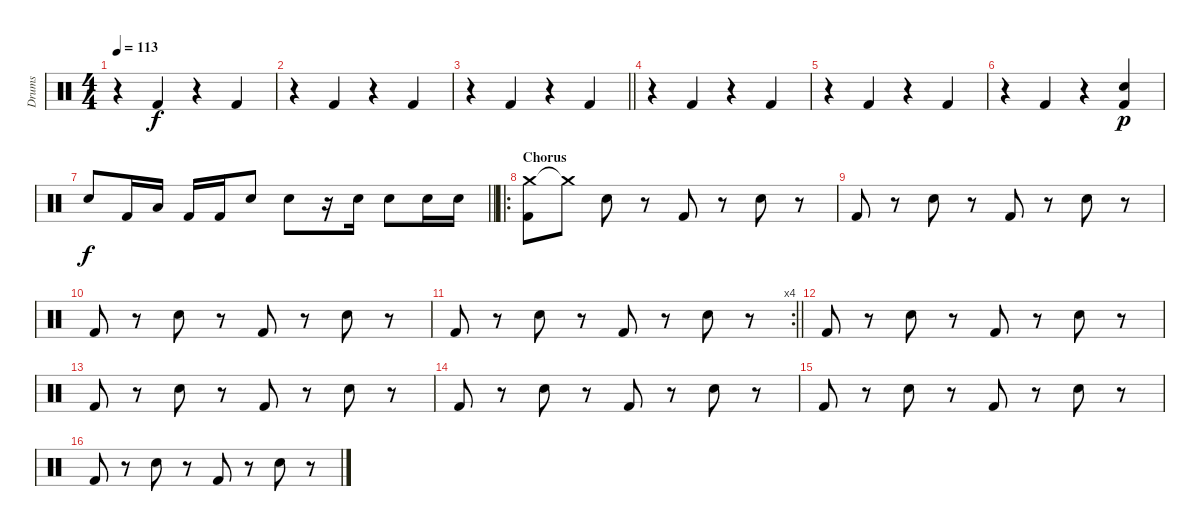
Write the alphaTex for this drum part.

\track ("Drums" "Drums") {instrument percussion}
\staff {score}
\articulation defaults
\ts (4 4)
\tempo 113
\clef neutral
\ks c
r.4{dy f} "Kick (hit) 2".4 r.4 "Kick (hit) 2".4 |
r.4 "Kick (hit) 2".4 r.4 "Kick (hit) 2".4 |
\barLineRight lightlight
r.4 "Kick (hit) 2".4 r.4 "Kick (hit) 2".4 |
r.4 "Kick (hit) 2".4 r.4 "Kick (hit) 2".4 |
r.4 "Kick (hit) 2".4 r.4 "Kick (hit) 2".4 |
r.4 "Kick (hit) 2".4 r.4 ("Hand Clap (hit)" "Kick (hit) 2").4{dy p} |
\barLineRight lightlight "Electric Snare (hit)".8{dy f} "Kick (hit) 2".16 "Low Tom (hit)".16 "Kick (hit) 2".16 "Kick (hit) 2".16 "Electric Snare (hit)".8 "Electric Snare (hit)".8
r.16 "Electric Snare (hit)".16 "Electric Snare (hit)".8 "Electric Snare (hit)".16 "Electric Snare (hit)".16 |
\ro
\section ("" "Chorus")
("Crash medium (hit)" "Kick (hit) 2").8 "Crash medium (hit)"{t}.8 "Electric Snare (hit)".8 r.8 "Kick (hit) 2".8 r.8 "Electric Snare (hit)".8 r.8 |
"Kick (hit) 2".8 r.8 "Electric Snare (hit)".8 r.8 "Kick (hit) 2".8 r.8 "Electric Snare (hit)".8 r.8 |
"Kick (hit) 2".8 r.8 "Electric Snare (hit)".8 r.8 "Kick (hit) 2".8 r.8 "Electric Snare (hit)".8 r.8 |
\rc 4
\barLineRight lightlight "Kick (hit) 2".8
r.8 "Electric Snare (hit)".8 r.8 "Kick (hit) 2".8 r.8 "Electric Snare (hit)".8 r.8 |
"Kick (hit) 2".8 r.8 "Electric Snare (hit)".8 r.8 "Kick (hit) 2".8 r.8 "Electric Snare (hit)".8 r.8 |
"Kick (hit) 2".8 r.8 "Electric Snare (hit)".8 r.8 "Kick (hit) 2".8 r.8 "Electric Snare (hit)".8 r.8 |
"Kick (hit) 2".8 r.8 "Electric Snare (hit)".8 r.8 "Kick (hit) 2".8 r.8 "Electric Snare (hit)".8 r.8 |
"Kick (hit) 2".8 r.8 "Electric Snare (hit)".8 r.8 "Kick (hit) 2".8 r.8 "Electric Snare (hit)".8 r.8 |
"Kick (hit) 2".8 r.8 "Electric Snare (hit)".8 r.8 "Kick (hit) 2".8 r.8 "Electric Snare (hit)".8 r.8
